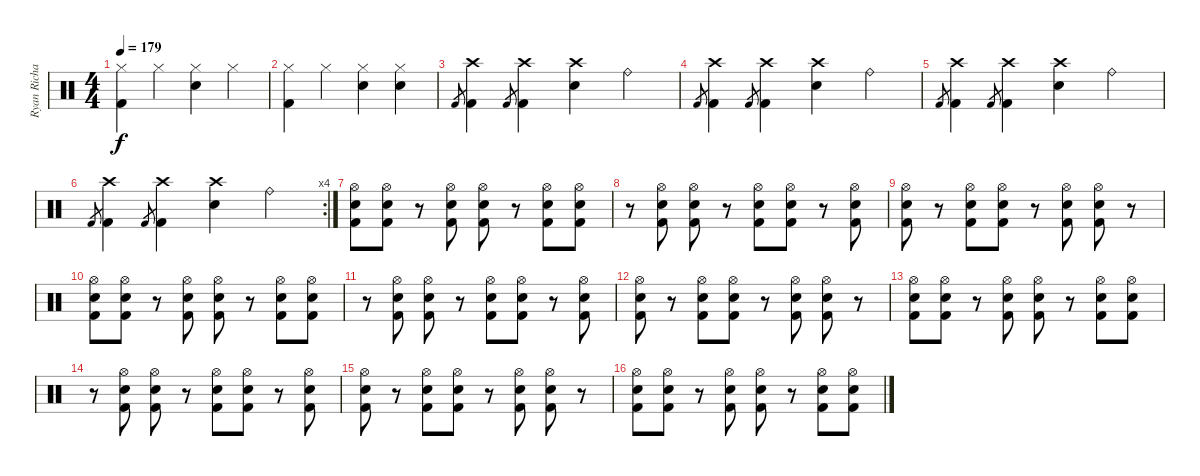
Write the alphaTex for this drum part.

\track ("Ryan Richards" "Ryan Richa") {instrument percussion}
\staff {score}
\articulation defaults
\ts (4 4)
\tempo 179
\clef neutral
\ks c
("Hi-Hat (closed)" "Kick (hit) 2").4{dy f} "Hi-Hat (closed)".4 ("Hi-Hat (closed)" "Snare (hit) 2").4 "Hi-Hat (closed)".4 |
("Hi-Hat (closed)" "Kick (hit) 2").4 "Hi-Hat (closed)".4 ("Hi-Hat (closed)" "Snare (hit) 2").4 ("Hi-Hat (closed)" "Snare (hit) 2").4 |
"Kick (hit) 2".8{gr} ("Crash high (hit)" "Kick (hit) 2").4 "Kick (hit) 2".8{gr} ("Crash high (hit)" "Kick (hit) 2").4 ("Crash high (hit)" "Snare (hit) 2").4 "Ride (bell)".4 |
"Kick (hit) 2".8{gr} ("Crash high (hit)" "Kick (hit) 2").4 "Kick (hit) 2".8{gr} ("Crash high (hit)" "Kick (hit) 2").4 ("Crash high (hit)" "Snare (hit) 2").4 "Ride (bell)".4 |
"Kick (hit) 2".8{gr} ("Crash high (hit)" "Kick (hit) 2").4 "Kick (hit) 2".8{gr} ("Crash high (hit)" "Kick (hit) 2").4 ("Crash high (hit)" "Snare (hit) 2").4 "Ride (bell)".4 |
\rc 4 "Kick (hit) 2".8{gr}
("Crash high (hit)" "Kick (hit) 2").4 "Kick (hit) 2".8{gr} ("Crash high (hit)" "Kick (hit) 2").4 ("Crash high (hit)" "Snare (hit) 2").4 "Ride (bell)".4 |
("Hi-Hat (open)" "Snare (hit) 2" "Kick (hit) 2").8 ("Hi-Hat (open)" "Snare (hit) 2" "Kick (hit) 2").8 r.8 ("Hi-Hat (open)" "Snare (hit) 2" "Kick (hit) 2").8 ("Hi-Hat (open)" "Snare (hit) 2" "Kick (hit) 2").8 r.8 ("Hi-Hat (open)" "Snare (hit) 2" "Kick (hit) 2").8 ("Hi-Hat (open)" "Snare (hit) 2" "Kick (hit) 2").8 |
r.8 ("Hi-Hat (open)" "Snare (hit) 2" "Kick (hit) 2").8 ("Hi-Hat (open)" "Snare (hit) 2" "Kick (hit) 2").8 r.8 ("Hi-Hat (open)" "Snare (hit) 2" "Kick (hit) 2").8 ("Hi-Hat (open)" "Snare (hit) 2" "Kick (hit) 2").8 r.8 ("Hi-Hat (open)" "Snare (hit) 2" "Kick (hit) 2").8 |
("Hi-Hat (open)" "Snare (hit) 2" "Kick (hit) 2").8 r.8 ("Hi-Hat (open)" "Snare (hit) 2" "Kick (hit) 2").8 ("Hi-Hat (open)" "Snare (hit) 2" "Kick (hit) 2").8 r.8 ("Hi-Hat (open)" "Snare (hit) 2" "Kick (hit) 2").8 ("Hi-Hat (open)" "Snare (hit) 2" "Kick (hit) 2").8 r.8 |
("Hi-Hat (open)" "Snare (hit) 2" "Kick (hit) 2").8 ("Hi-Hat (open)" "Snare (hit) 2" "Kick (hit) 2").8 r.8 ("Hi-Hat (open)" "Snare (hit) 2" "Kick (hit) 2").8 ("Hi-Hat (open)" "Snare (hit) 2" "Kick (hit) 2").8 r.8 ("Hi-Hat (open)" "Snare (hit) 2" "Kick (hit) 2").8 ("Hi-Hat (open)" "Snare (hit) 2" "Kick (hit) 2").8 |
r.8 ("Hi-Hat (open)" "Snare (hit) 2" "Kick (hit) 2").8 ("Hi-Hat (open)" "Snare (hit) 2" "Kick (hit) 2").8 r.8 ("Hi-Hat (open)" "Snare (hit) 2" "Kick (hit) 2").8 ("Hi-Hat (open)" "Snare (hit) 2" "Kick (hit) 2").8 r.8 ("Hi-Hat (open)" "Snare (hit) 2" "Kick (hit) 2").8 |
("Hi-Hat (open)" "Snare (hit) 2" "Kick (hit) 2").8 r.8 ("Hi-Hat (open)" "Snare (hit) 2" "Kick (hit) 2").8 ("Hi-Hat (open)" "Snare (hit) 2" "Kick (hit) 2").8 r.8 ("Hi-Hat (open)" "Snare (hit) 2" "Kick (hit) 2").8 ("Hi-Hat (open)" "Snare (hit) 2" "Kick (hit) 2").8 r.8 |
("Hi-Hat (open)" "Snare (hit) 2" "Kick (hit) 2").8 ("Hi-Hat (open)" "Snare (hit) 2" "Kick (hit) 2").8 r.8 ("Hi-Hat (open)" "Snare (hit) 2" "Kick (hit) 2").8 ("Hi-Hat (open)" "Snare (hit) 2" "Kick (hit) 2").8 r.8 ("Hi-Hat (open)" "Snare (hit) 2" "Kick (hit) 2").8 ("Hi-Hat (open)" "Snare (hit) 2" "Kick (hit) 2").8 |
r.8 ("Hi-Hat (open)" "Snare (hit) 2" "Kick (hit) 2").8 ("Hi-Hat (open)" "Snare (hit) 2" "Kick (hit) 2").8 r.8 ("Hi-Hat (open)" "Snare (hit) 2" "Kick (hit) 2").8 ("Hi-Hat (open)" "Snare (hit) 2" "Kick (hit) 2").8 r.8 ("Hi-Hat (open)" "Snare (hit) 2" "Kick (hit) 2").8 |
("Hi-Hat (open)" "Snare (hit) 2" "Kick (hit) 2").8 r.8 ("Hi-Hat (open)" "Snare (hit) 2" "Kick (hit) 2").8 ("Hi-Hat (open)" "Snare (hit) 2" "Kick (hit) 2").8 r.8 ("Hi-Hat (open)" "Snare (hit) 2" "Kick (hit) 2").8 ("Hi-Hat (open)" "Snare (hit) 2" "Kick (hit) 2").8 r.8 |
("Hi-Hat (open)" "Snare (hit) 2" "Kick (hit) 2").8 ("Hi-Hat (open)" "Snare (hit) 2" "Kick (hit) 2").8 r.8 ("Hi-Hat (open)" "Snare (hit) 2" "Kick (hit) 2").8 ("Hi-Hat (open)" "Snare (hit) 2" "Kick (hit) 2").8 r.8 ("Hi-Hat (open)" "Snare (hit) 2" "Kick (hit) 2").8 ("Hi-Hat (open)" "Snare (hit) 2" "Kick (hit) 2").8
